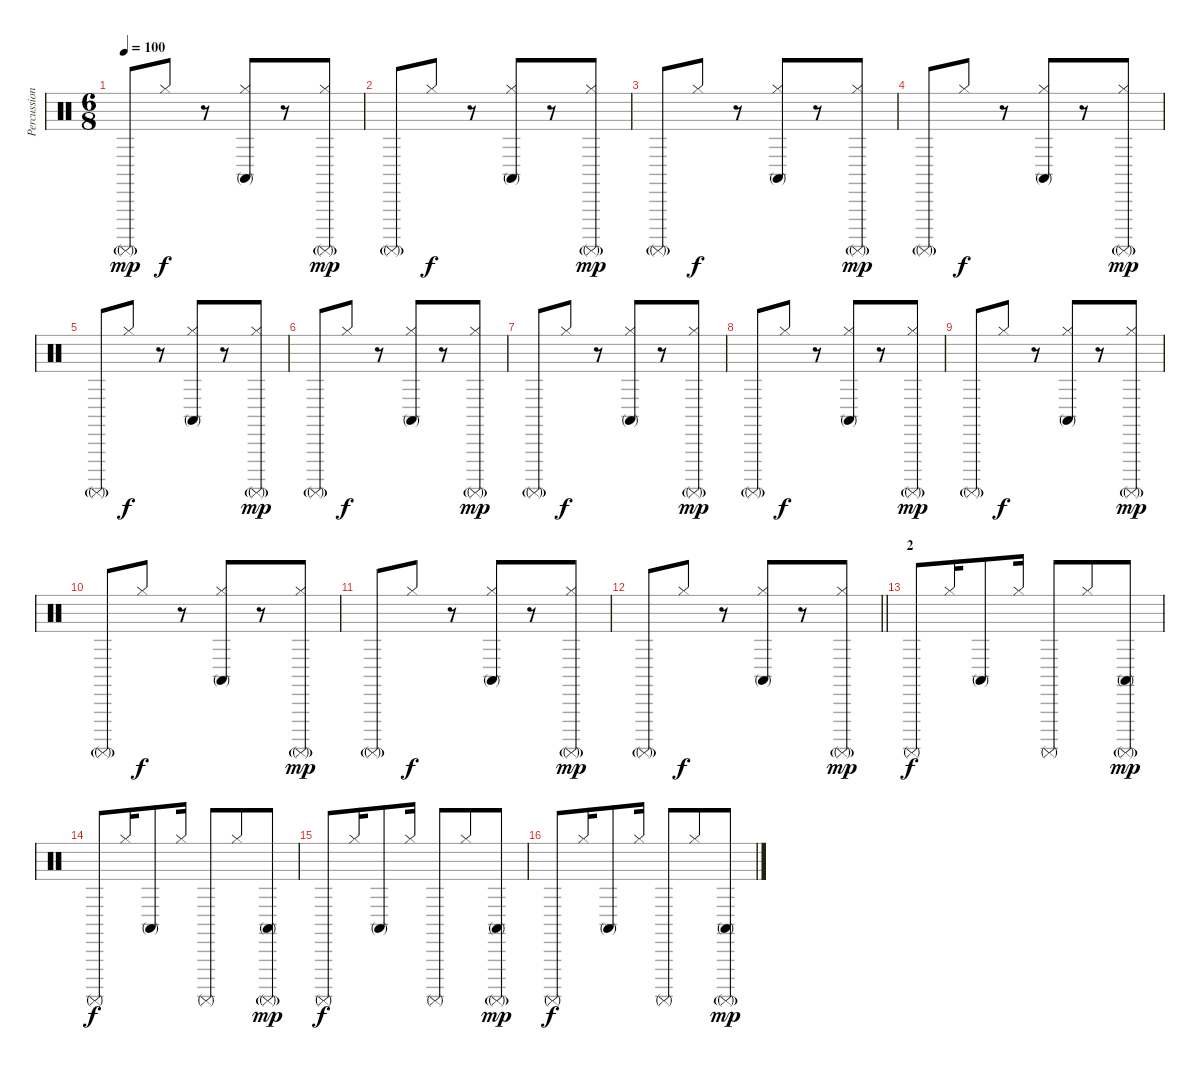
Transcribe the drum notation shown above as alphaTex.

\track ("Percussion" "Percussion") {instrument percussion}
\staff {score}
\articulation defaults
\ts (6 8)
\tempo 100
\clef neutral
\ks c "Surdo (mute)"{g}.8{dy mp} "Hi-Hat (closed)".8{dy f}
r.8 ("Conga high (mute)" "Hi-Hat (closed)").8 r.8 ("Hi-Hat (closed)" "Surdo (mute)"{g}).8{dy mp} |
"Surdo (mute)"{g}.8 "Hi-Hat (closed)".8{dy f} r.8 ("Conga high (mute)" "Hi-Hat (closed)").8 r.8 ("Hi-Hat (closed)" "Surdo (mute)"{g}).8{dy mp} |
"Surdo (mute)"{g}.8 "Hi-Hat (closed)".8{dy f} r.8 ("Conga high (mute)" "Hi-Hat (closed)").8 r.8 ("Hi-Hat (closed)" "Surdo (mute)"{g}).8{dy mp} |
"Surdo (mute)"{g}.8 "Hi-Hat (closed)".8{dy f} r.8 ("Conga high (mute)" "Hi-Hat (closed)").8 r.8 ("Hi-Hat (closed)" "Surdo (mute)"{g}).8{dy mp} |
"Surdo (mute)"{g}.8 "Hi-Hat (closed)".8{dy f} r.8 ("Conga high (mute)" "Hi-Hat (closed)").8 r.8 ("Hi-Hat (closed)" "Surdo (mute)"{g}).8{dy mp} |
"Surdo (mute)"{g}.8 "Hi-Hat (closed)".8{dy f} r.8 ("Conga high (mute)" "Hi-Hat (closed)").8 r.8 ("Hi-Hat (closed)" "Surdo (mute)"{g}).8{dy mp} |
"Surdo (mute)"{g}.8 "Hi-Hat (closed)".8{dy f} r.8 ("Conga high (mute)" "Hi-Hat (closed)").8 r.8 ("Hi-Hat (closed)" "Surdo (mute)"{g}).8{dy mp} |
"Surdo (mute)"{g}.8 "Hi-Hat (closed)".8{dy f} r.8 ("Conga high (mute)" "Hi-Hat (closed)").8 r.8 ("Hi-Hat (closed)" "Surdo (mute)"{g}).8{dy mp} |
"Surdo (mute)"{g}.8 "Hi-Hat (closed)".8{dy f} r.8 ("Conga high (mute)" "Hi-Hat (closed)").8 r.8 ("Hi-Hat (closed)" "Surdo (mute)"{g}).8{dy mp} |
"Surdo (mute)"{g}.8 "Hi-Hat (closed)".8{dy f} r.8 ("Conga high (mute)" "Hi-Hat (closed)").8 r.8 ("Hi-Hat (closed)" "Surdo (mute)"{g}).8{dy mp} |
"Surdo (mute)"{g}.8 "Hi-Hat (closed)".8{dy f} r.8 ("Conga high (mute)" "Hi-Hat (closed)").8 r.8 ("Hi-Hat (closed)" "Surdo (mute)"{g}).8{dy mp} |
\barLineRight lightlight "Surdo (mute)"{g}.8 "Hi-Hat (closed)".8{dy f}
r.8 ("Conga high (mute)" "Hi-Hat (closed)").8 r.8 ("Hi-Hat (closed)" "Surdo (mute)"{g}).8{dy mp} |
\section ("" "2")
"Surdo (mute)".8{dy f} "Hi-Hat (closed)".16 "Conga high (mute)".8 "Hi-Hat (closed)".16 "Surdo (mute)".8 "Hi-Hat (closed)".8 ("Conga high (mute)" "Surdo (mute)"{g}).8{dy mp} |
"Surdo (mute)".8{dy f} "Hi-Hat (closed)".16 "Conga high (mute)".8 "Hi-Hat (closed)".16 "Surdo (mute)".8 "Hi-Hat (closed)".8 ("Conga high (mute)" "Surdo (mute)"{g}).8{dy mp} |
"Surdo (mute)".8{dy f} "Hi-Hat (closed)".16 "Conga high (mute)".8 "Hi-Hat (closed)".16 "Surdo (mute)".8 "Hi-Hat (closed)".8 ("Conga high (mute)" "Surdo (mute)"{g}).8{dy mp} |
"Surdo (mute)".8{dy f} "Hi-Hat (closed)".16 "Conga high (mute)".8 "Hi-Hat (closed)".16 "Surdo (mute)".8 "Hi-Hat (closed)".8 ("Conga high (mute)" "Surdo (mute)"{g}).8{dy mp}
